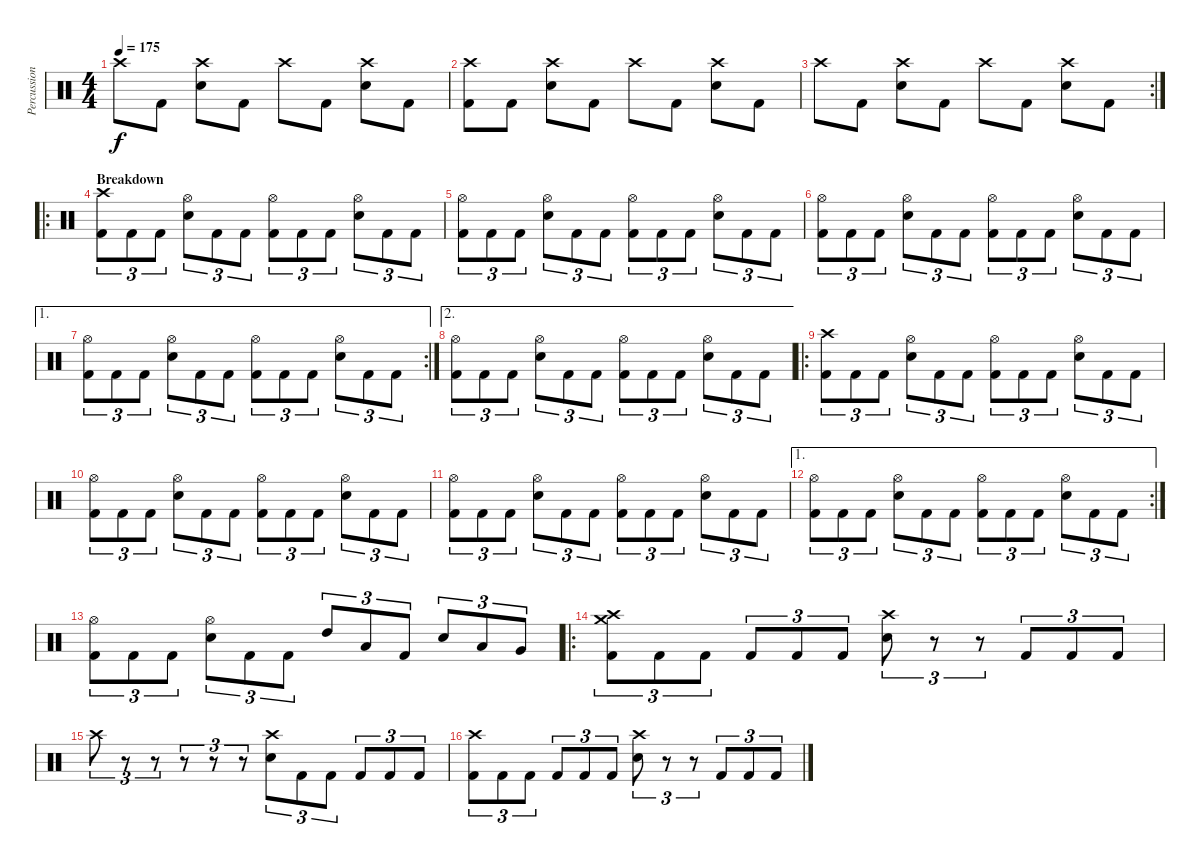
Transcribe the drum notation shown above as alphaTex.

\track ("Percussion" "Percussion") {instrument percussion}
\staff {score}
\articulation defaults
\ts (4 4)
\tempo 175
\clef neutral
\ks c "Crash high (hit)".8{dy f} "Kick (hit) 2".8
("Crash high (hit)" "Electric Snare (hit)").8 "Kick (hit) 2".8 "Crash high (hit)".8 "Kick (hit) 2".8 ("Crash high (hit)" "Electric Snare (hit)").8 "Kick (hit) 2".8 |
("Crash high (hit)" "Kick (hit) 2").8 "Kick (hit) 2".8 ("Crash high (hit)" "Electric Snare (hit)").8 "Kick (hit) 2".8 "Crash high (hit)".8 "Kick (hit) 2".8 ("Crash high (hit)" "Electric Snare (hit)").8 "Kick (hit) 2".8 |
\rc 2 "Crash high (hit)".8 "Kick (hit) 2".8
("Crash high (hit)" "Electric Snare (hit)").8 "Kick (hit) 2".8 "Crash high (hit)".8 "Kick (hit) 2".8 ("Crash high (hit)" "Electric Snare (hit)").8 "Kick (hit) 2".8 |
\ro
\section ("" "Breakdown")
("Crash high (hit)" "Kick (hit) 2").8{tu (3 2)} "Kick (hit) 2".8{tu (3 2)} "Kick (hit) 2".8{tu (3 2)} ("Hi-Hat (open)" "Electric Snare (hit)").8{tu (3 2)} "Kick (hit) 2".8{tu (3 2)} "Kick (hit) 2".8{tu (3 2)} ("Hi-Hat (open)" "Kick (hit) 2").8{tu (3 2)} "Kick (hit) 2".8{tu (3 2)} "Kick (hit) 2".8{tu (3 2)} ("Hi-Hat (open)" "Electric Snare (hit)").8{tu (3 2)} "Kick (hit) 2".8{tu (3 2)} "Kick (hit) 2".8{tu (3 2)} |
("Hi-Hat (open)" "Kick (hit) 2").8{tu (3 2)} "Kick (hit) 2".8{tu (3 2)} "Kick (hit) 2".8{tu (3 2)} ("Hi-Hat (open)" "Electric Snare (hit)").8{tu (3 2)} "Kick (hit) 2".8{tu (3 2)} "Kick (hit) 2".8{tu (3 2)} ("Hi-Hat (open)" "Kick (hit) 2").8{tu (3 2)} "Kick (hit) 2".8{tu (3 2)} "Kick (hit) 2".8{tu (3 2)} ("Hi-Hat (open)" "Electric Snare (hit)").8{tu (3 2)} "Kick (hit) 2".8{tu (3 2)} "Kick (hit) 2".8{tu (3 2)} |
("Hi-Hat (open)" "Kick (hit) 2").8{tu (3 2)} "Kick (hit) 2".8{tu (3 2)} "Kick (hit) 2".8{tu (3 2)} ("Hi-Hat (open)" "Electric Snare (hit)").8{tu (3 2)} "Kick (hit) 2".8{tu (3 2)} "Kick (hit) 2".8{tu (3 2)} ("Hi-Hat (open)" "Kick (hit) 2").8{tu (3 2)} "Kick (hit) 2".8{tu (3 2)} "Kick (hit) 2".8{tu (3 2)} ("Hi-Hat (open)" "Electric Snare (hit)").8{tu (3 2)} "Kick (hit) 2".8{tu (3 2)} "Kick (hit) 2".8{tu (3 2)} |
\ae 1
\rc 2
("Hi-Hat (open)" "Kick (hit) 2").8{tu (3 2)} "Kick (hit) 2".8{tu (3 2)} "Kick (hit) 2".8{tu (3 2)} ("Hi-Hat (open)" "Electric Snare (hit)").8{tu (3 2)} "Kick (hit) 2".8{tu (3 2)} "Kick (hit) 2".8{tu (3 2)} ("Hi-Hat (open)" "Kick (hit) 2").8{tu (3 2)} "Kick (hit) 2".8{tu (3 2)} "Kick (hit) 2".8{tu (3 2)} ("Hi-Hat (open)" "Electric Snare (hit)").8{tu (3 2)} "Kick (hit) 2".8{tu (3 2)} "Kick (hit) 2".8{tu (3 2)} |
\ae 2
("Hi-Hat (open)" "Kick (hit) 2").8{tu (3 2)} "Kick (hit) 2".8{tu (3 2)} "Kick (hit) 2".8{tu (3 2)} ("Hi-Hat (open)" "Electric Snare (hit)").8{tu (3 2)} "Kick (hit) 2".8{tu (3 2)} "Kick (hit) 2".8{tu (3 2)} ("Hi-Hat (open)" "Kick (hit) 2").8{tu (3 2)} "Kick (hit) 2".8{tu (3 2)} "Kick (hit) 2".8{tu (3 2)} ("Hi-Hat (open)" "Electric Snare (hit)").8{tu (3 2)} "Kick (hit) 2".8{tu (3 2)} "Kick (hit) 2".8{tu (3 2)} |
\ro
("Crash high (hit)" "Kick (hit) 2").8{tu (3 2)} "Kick (hit) 2".8{tu (3 2)} "Kick (hit) 2".8{tu (3 2)} ("Hi-Hat (open)" "Electric Snare (hit)").8{tu (3 2)} "Kick (hit) 2".8{tu (3 2)} "Kick (hit) 2".8{tu (3 2)} ("Hi-Hat (open)" "Kick (hit) 2").8{tu (3 2)} "Kick (hit) 2".8{tu (3 2)} "Kick (hit) 2".8{tu (3 2)} ("Hi-Hat (open)" "Electric Snare (hit)").8{tu (3 2)} "Kick (hit) 2".8{tu (3 2)} "Kick (hit) 2".8{tu (3 2)} |
("Hi-Hat (open)" "Kick (hit) 2").8{tu (3 2)} "Kick (hit) 2".8{tu (3 2)} "Kick (hit) 2".8{tu (3 2)} ("Hi-Hat (open)" "Electric Snare (hit)").8{tu (3 2)} "Kick (hit) 2".8{tu (3 2)} "Kick (hit) 2".8{tu (3 2)} ("Hi-Hat (open)" "Kick (hit) 2").8{tu (3 2)} "Kick (hit) 2".8{tu (3 2)} "Kick (hit) 2".8{tu (3 2)} ("Hi-Hat (open)" "Electric Snare (hit)").8{tu (3 2)} "Kick (hit) 2".8{tu (3 2)} "Kick (hit) 2".8{tu (3 2)} |
("Hi-Hat (open)" "Kick (hit) 2").8{tu (3 2)} "Kick (hit) 2".8{tu (3 2)} "Kick (hit) 2".8{tu (3 2)} ("Hi-Hat (open)" "Electric Snare (hit)").8{tu (3 2)} "Kick (hit) 2".8{tu (3 2)} "Kick (hit) 2".8{tu (3 2)} ("Hi-Hat (open)" "Kick (hit) 2").8{tu (3 2)} "Kick (hit) 2".8{tu (3 2)} "Kick (hit) 2".8{tu (3 2)} ("Hi-Hat (open)" "Electric Snare (hit)").8{tu (3 2)} "Kick (hit) 2".8{tu (3 2)} "Kick (hit) 2".8{tu (3 2)} |
\ae 1
\rc 2
("Hi-Hat (open)" "Kick (hit) 2").8{tu (3 2)} "Kick (hit) 2".8{tu (3 2)} "Kick (hit) 2".8{tu (3 2)} ("Hi-Hat (open)" "Electric Snare (hit)").8{tu (3 2)} "Kick (hit) 2".8{tu (3 2)} "Kick (hit) 2".8{tu (3 2)} ("Hi-Hat (open)" "Kick (hit) 2").8{tu (3 2)} "Kick (hit) 2".8{tu (3 2)} "Kick (hit) 2".8{tu (3 2)} ("Hi-Hat (open)" "Electric Snare (hit)").8{tu (3 2)} "Kick (hit) 2".8{tu (3 2)} "Kick (hit) 2".8{tu (3 2)} |
("Hi-Hat (open)" "Kick (hit) 2").8{tu (3 2)} "Kick (hit) 2".8{tu (3 2)} "Kick (hit) 2".8{tu (3 2)} ("Hi-Hat (open)" "Electric Snare (hit)").8{tu (3 2)} "Kick (hit) 2".8{tu (3 2)} "Kick (hit) 2".8{tu (3 2)} "High Tom (hit)".8{tu (3 2)} "Low Tom (hit)".8{tu (3 2)} "Kick (hit) 2".8{tu (3 2)} "Electric Snare (hit)".8{tu (3 2)} "Low Tom (hit)".8{tu (3 2)} "Very Low Tom (hit)".8{tu (3 2)} |
\ro
("Crash high (hit)" "Crash medium (hit)" "Kick (hit) 2").8{tu (3 2)} "Kick (hit) 2".8{tu (3 2)} "Kick (hit) 2".8{tu (3 2)} "Kick (hit) 2".8{tu (3 2)} "Kick (hit) 2".8{tu (3 2)} "Kick (hit) 2".8{tu (3 2)} ("Crash high (hit)" "Electric Snare (hit)").8{tu (3 2)} r.8{tu (3 2)} r.8{tu (3 2)} "Kick (hit) 2".8{tu (3 2)} "Kick (hit) 2".8{tu (3 2)} "Kick (hit) 2".8{tu (3 2)} |
"Crash high (hit)".8{tu (3 2)} r.8{tu (3 2)} r.8{tu (3 2)} r.8{tu (3 2)} r.8{tu (3 2)} r.8{tu (3 2)} ("Crash high (hit)" "Electric Snare (hit)").8{tu (3 2)} "Kick (hit) 2".8{tu (3 2)} "Kick (hit) 2".8{tu (3 2)} "Kick (hit) 2".8{tu (3 2)} "Kick (hit) 2".8{tu (3 2)} "Kick (hit) 2".8{tu (3 2)} |
("Crash high (hit)" "Kick (hit) 2").8{tu (3 2)} "Kick (hit) 2".8{tu (3 2)} "Kick (hit) 2".8{tu (3 2)} "Kick (hit) 2".8{tu (3 2)} "Kick (hit) 2".8{tu (3 2)} "Kick (hit) 2".8{tu (3 2)} ("Crash high (hit)" "Electric Snare (hit)").8{tu (3 2)} r.8{tu (3 2)} r.8{tu (3 2)} "Kick (hit) 2".8{tu (3 2)} "Kick (hit) 2".8{tu (3 2)} "Kick (hit) 2".8{tu (3 2)}
